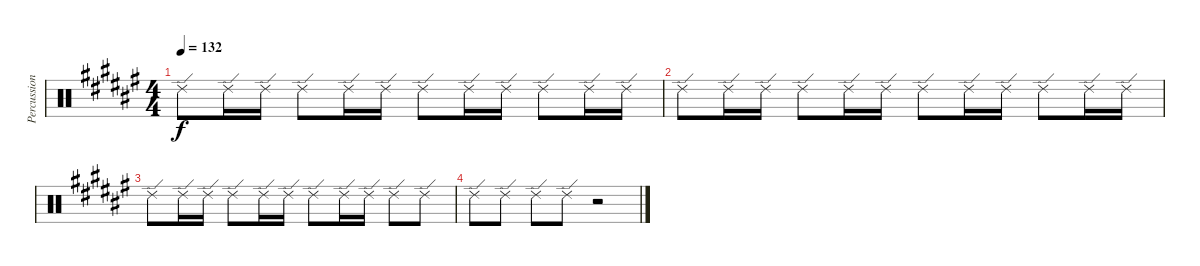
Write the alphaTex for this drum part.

\track ("Percussion" "Percussion") {instrument percussion}
\staff {score}
\articulation defaults
\ts (4 4)
\tempo 132
\clef neutral
\ks f# "Ride (edge) 2".8{dy f} "Ride (edge) 2".16 "Ride (edge) 2".16 "Ride (edge) 2".8 "Ride (edge) 2".16 "Ride (edge) 2".16 "Ride (edge) 2".8 "Ride (edge) 2".16 "Ride (edge) 2".16 "Ride (edge) 2".8 "Ride (edge) 2".16 "Ride (edge) 2".16
|
"Ride (edge) 2".8 "Ride (edge) 2".16 "Ride (edge) 2".16 "Ride (edge) 2".8 "Ride (edge) 2".16 "Ride (edge) 2".16 "Ride (edge) 2".8 "Ride (edge) 2".16 "Ride (edge) 2".16 "Ride (edge) 2".8 "Ride (edge) 2".16 "Ride (edge) 2".16 |
"Ride (edge) 2".8 "Ride (edge) 2".16 "Ride (edge) 2".16 "Ride (edge) 2".8 "Ride (edge) 2".16 "Ride (edge) 2".16 "Ride (edge) 2".8 "Ride (edge) 2".16 "Ride (edge) 2".16 "Ride (edge) 2".8 "Ride (edge) 2".8 |
"Ride (edge) 2".8 "Ride (edge) 2".8 "Ride (edge) 2".8 "Ride (edge) 2".8 r.2
